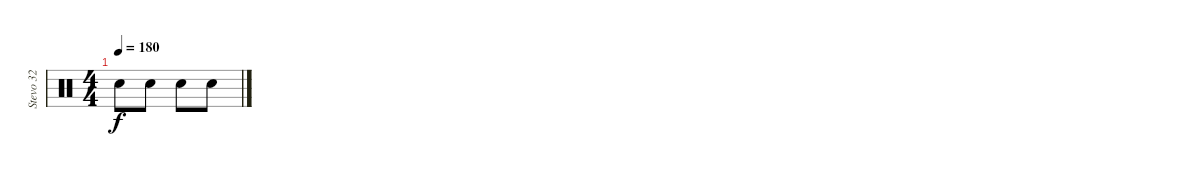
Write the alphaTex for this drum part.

\track ("Stevo 32" "Stevo 32") {instrument percussion}
\staff {score}
\articulation defaults
\ts (4 4)
\tempo 180
\clef neutral
\ks c "Snare (hit) 2".8{dy f} "Snare (hit) 2".8 "Snare (hit) 2".8 "Snare (hit) 2".8
